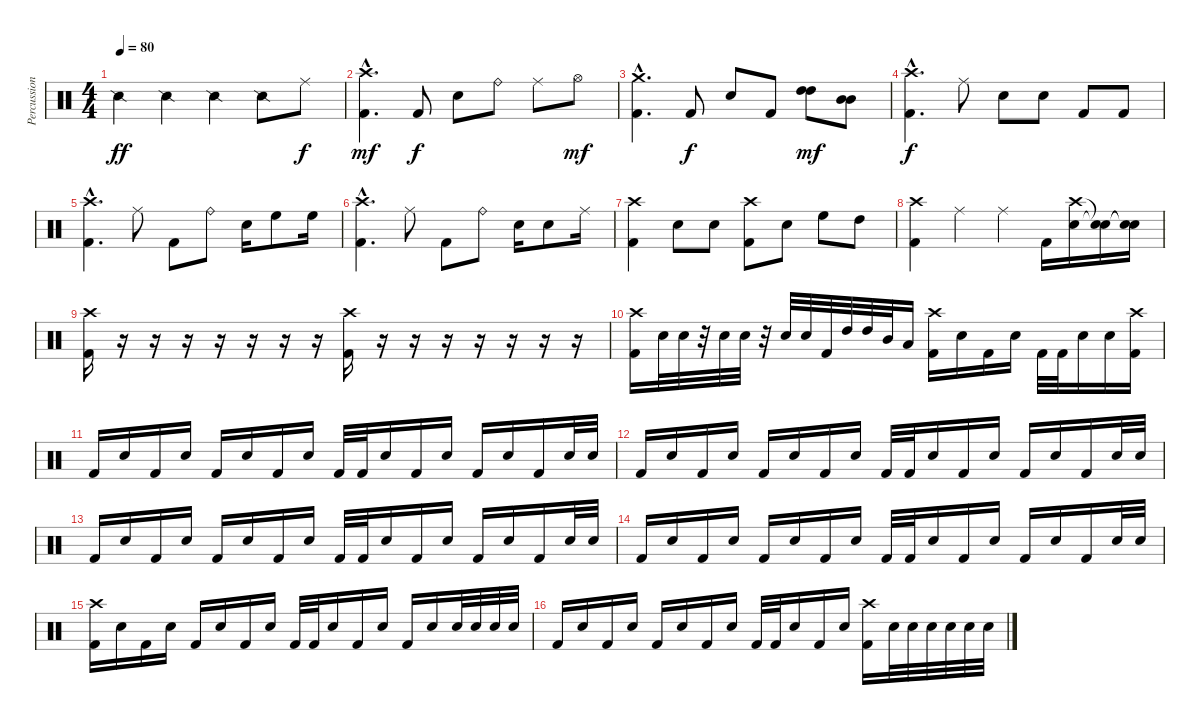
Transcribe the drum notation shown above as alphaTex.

\track ("Percussioni" "Percussion") {instrument percussion}
\staff {score}
\articulation defaults
\ts (4 4)
\tempo 80
\clef neutral
\ks c "Snare (side stick) 2".4{dy ff} "Snare (side stick) 2".4 "Snare (side stick) 2".4 "Snare (side stick) 2".8 "Ride (middle)".8{dy f}
|
("Crash high (hit)"{hac} "Kick (hit) 2"{hac}).4{d dy mf} "Kick (hit) 2".8{dy f} "Electric Snare (hit)".8 "Ride (bell)".8 "Ride (middle)".8{bd 120} "Hi-Hat (open)".8{dy mf} |
("Crash medium (hit)"{hac} "Kick (hit) 2"{hac}).4{d} "Kick (hit) 2".8{dy f} "Electric Snare (hit)".8 "Kick (hit) 2".8 ("High Tom (hit)" "High Tom (hit)").8{bd 120 dy mf} ("Mid Tom (hit)" "Mid Tom (hit)").8{bd 120} |
("Crash high (hit)"{hac} "Kick (hit) 2"{hac}).4{d dy f} "Ride (middle)".8 "Electric Snare (hit)".8 "Electric Snare (hit)".8 "Kick (hit) 2".8 "Kick (hit) 2".8 |
("Crash high (hit)"{hac} "Kick (hit) 2"{hac}).4{d} "Ride (middle)".8 "Kick (hit) 2".8 "Ride (bell)".8 "Electric Snare (hit)".16 "High Floor Tom (hit)".8 "High Floor Tom (hit)".16 |
("Crash high (hit)"{hac} "Kick (hit) 2"{hac}).4{d} "Ride (middle)".8 "Kick (hit) 2".8 "Ride (bell)".8 "Electric Snare (hit)".16 "Electric Snare (hit)".8 "Ride (middle)".16 |
("Crash high (hit)" "Kick (hit) 2").4 "Electric Snare (hit)".8 "Electric Snare (hit)".8 ("Crash high (hit)" "Kick (hit) 2").8 "Electric Snare (hit)".8 "High Floor Tom (hit)".8 "High Tom (hit)".8 |
("Crash high (hit)" "Kick (hit) 2").4 "Ride (middle)".4 "Ride (middle)".4 "Kick (hit) 2".16 ("Crash high (hit)" "Electric Snare (hit)").16 ("Snare (hit)"{t} "Snare (hit)"{t}).16 ("Snare (hit)"{t} "Snare (hit)"{t}).16 |
("Crash high (hit)" "Kick (hit) 2").16 r.16 r.16 r.16 r.16 r.16 r.16 r.16 ("Crash high (hit)" "Kick (hit) 2").16 r.16 r.16 r.16 r.16 r.16 r.16 r.16 |
("Crash high (hit)" "Kick (hit) 2").16 "Electric Snare (hit)".32 "Electric Snare (hit)".32 r.32 "Electric Snare (hit)".32 "Electric Snare (hit)".32 r.32 "Electric Snare (hit)".32 "Electric Snare (hit)".32 "Kick (hit) 2".32 "High Tom (hit)".32 "High Tom (hit)".32 "Mid Tom (hit)".32 "Low Tom (hit)".16 ("Crash high (hit)" "Kick (hit) 2").16 "Electric Snare (hit)".16 "Kick (hit) 2".16 "Electric Snare (hit)".16 "Kick (hit) 2".32 "Kick (hit) 2".32 "Electric Snare (hit)".16 "Electric Snare (hit)".16 ("Crash high (hit)" "Kick (hit) 2").16 |
"Kick (hit) 2".16 "Electric Snare (hit)".16 "Kick (hit) 2".16 "Electric Snare (hit)".16 "Kick (hit) 2".16 "Electric Snare (hit)".16 "Kick (hit) 2".16 "Electric Snare (hit)".16 "Kick (hit) 2".32 "Kick (hit) 2".32 "Electric Snare (hit)".16 "Kick (hit) 2".16 "Electric Snare (hit)".16 "Kick (hit) 2".16 "Electric Snare (hit)".16 "Kick (hit) 2".16 "Electric Snare (hit)".32 "Electric Snare (hit)".32 |
"Kick (hit) 2".16 "Electric Snare (hit)".16 "Kick (hit) 2".16 "Electric Snare (hit)".16 "Kick (hit) 2".16 "Electric Snare (hit)".16 "Kick (hit) 2".16 "Electric Snare (hit)".16 "Kick (hit) 2".32 "Kick (hit) 2".32 "Electric Snare (hit)".16 "Kick (hit) 2".16 "Electric Snare (hit)".16 "Kick (hit) 2".16 "Electric Snare (hit)".16 "Kick (hit) 2".16 "Electric Snare (hit)".32 "Electric Snare (hit)".32 |
"Kick (hit) 2".16 "Electric Snare (hit)".16 "Kick (hit) 2".16 "Electric Snare (hit)".16 "Kick (hit) 2".16 "Electric Snare (hit)".16 "Kick (hit) 2".16 "Electric Snare (hit)".16 "Kick (hit) 2".32 "Kick (hit) 2".32 "Electric Snare (hit)".16 "Kick (hit) 2".16 "Electric Snare (hit)".16 "Kick (hit) 2".16 "Electric Snare (hit)".16 "Kick (hit) 2".16 "Electric Snare (hit)".32 "Electric Snare (hit)".32 |
"Kick (hit) 2".16 "Electric Snare (hit)".16 "Kick (hit) 2".16 "Electric Snare (hit)".16 "Kick (hit) 2".16 "Electric Snare (hit)".16 "Kick (hit) 2".16 "Electric Snare (hit)".16 "Kick (hit) 2".32 "Kick (hit) 2".32 "Electric Snare (hit)".16 "Kick (hit) 2".16 "Electric Snare (hit)".16 "Kick (hit) 2".16 "Electric Snare (hit)".16 "Kick (hit) 2".16 "Electric Snare (hit)".32 "Electric Snare (hit)".32 |
("Crash high (hit)" "Kick (hit) 2").16 "Electric Snare (hit)".16 "Kick (hit) 2".16 "Electric Snare (hit)".16 "Kick (hit) 2".16 "Electric Snare (hit)".16 "Kick (hit) 2".16 "Electric Snare (hit)".16 "Kick (hit) 2".32 "Kick (hit) 2".32 "Electric Snare (hit)".16 "Kick (hit) 2".16 "Electric Snare (hit)".16 "Kick (hit) 2".16 "Electric Snare (hit)".16 "Electric Snare (hit)".32 "Electric Snare (hit)".32 "Electric Snare (hit)".32 "Electric Snare (hit)".32 |
"Kick (hit) 2".16 "Electric Snare (hit)".16 "Kick (hit) 2".16 "Electric Snare (hit)".16 "Kick (hit) 2".16 "Electric Snare (hit)".16 "Kick (hit) 2".16 "Electric Snare (hit)".16 "Kick (hit) 2".32 "Kick (hit) 2".32 "Electric Snare (hit)".16 "Kick (hit) 2".16 "Electric Snare (hit)".16 ("Crash high (hit)" "Kick (hit) 2").16 "Electric Snare (hit)".32 "Electric Snare (hit)".32 "Electric Snare (hit)".32 "Electric Snare (hit)".32 "Electric Snare (hit)".32 "Electric Snare (hit)".32
